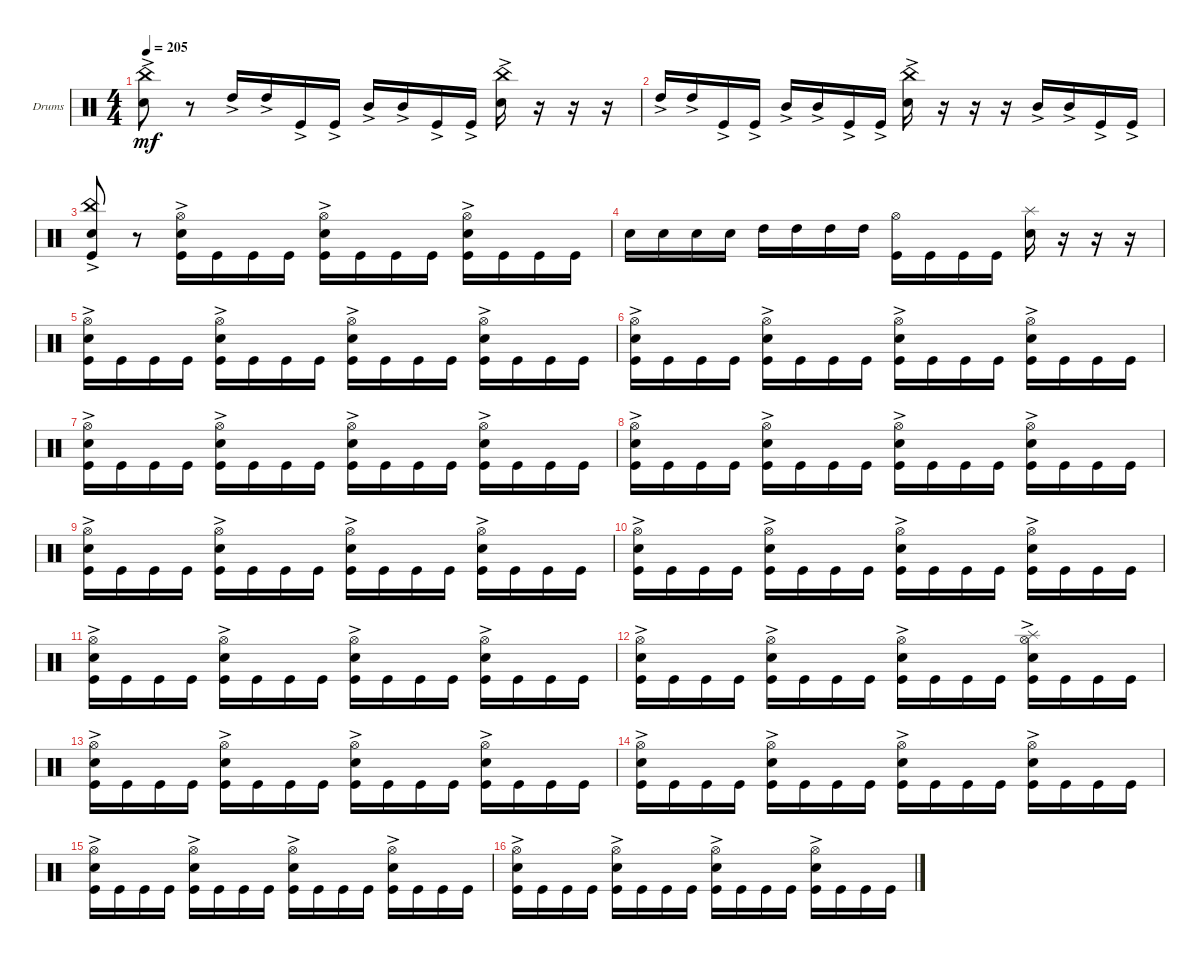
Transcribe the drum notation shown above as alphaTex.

\defaultSystemsLayout 4
\bracketExtendMode groupsimilarinstruments
\firstSystemTrackNameOrientation horizontal
\otherSystemsTrackNameOrientation horizontal
\track ("Drumkit" "Drums") {instrument percussion}
\staff {score}
\articulation defaults
\ts (4 4)
\tempo 205
\clef neutral
\ks c
("Snare (hit) 2"{ac} "China (hit)"{ac}).8{dy mf} r.8 "High Tom (hit)"{ac}.16 "High Tom (hit)"{ac}.16 "Kick (hit)"{ac}.16 "Kick (hit)"{ac}.16 "Mid Tom (hit)"{ac}.16 "Mid Tom (hit)"{ac}.16 "Kick (hit)"{ac}.16 "Kick (hit)"{ac}.16 ("Snare (hit) 2"{ac} "China (hit)"{ac}).16 r.16 r.16 r.16 |
"High Tom (hit)"{ac}.16 "High Tom (hit)"{ac}.16 "Kick (hit)"{ac}.16 "Kick (hit)"{ac}.16 "Mid Tom (hit)"{ac}.16 "Mid Tom (hit)"{ac}.16 "Kick (hit)"{ac}.16 "Kick (hit)"{ac}.16 ("Snare (hit) 2"{ac} "China (hit)"{ac}).16 r.16 r.16 r.16 "Mid Tom (hit)"{ac}.16 "Mid Tom (hit)"{ac}.16 "Kick (hit)"{ac}.16 "Kick (hit)"{ac}.16 |
("Snare (hit) 2"{ac} "Kick (hit)"{ac} "China (hit)"{ac}).8 r.8 ("Snare (hit) 2"{ac} "Kick (hit)" "Hi-Hat (open)").16 "Kick (hit)".16 "Kick (hit)".16 "Kick (hit)".16 ("Snare (hit) 2"{ac} "Kick (hit)" "Hi-Hat (open)").16 "Kick (hit)".16 "Kick (hit)".16 "Kick (hit)".16 ("Snare (hit) 2"{ac} "Kick (hit)" "Hi-Hat (open)"{ac}).16 "Kick (hit)".16 "Kick (hit)".16 "Kick (hit)".16 |
"Snare (hit) 2".16 "Snare (hit) 2".16 "Snare (hit) 2".16 "Snare (hit) 2".16 "High Tom (hit)".16 "High Tom (hit)".16 "High Tom (hit)".16 "High Tom (hit)".16 ("Hi-Hat (open)" "Kick (hit)").16 "Kick (hit)".16 "Kick (hit)".16 "Kick (hit)".16 ("Snare (hit) 2" "Splash (hit)").16 r.16 r.16 r.16 |
("Snare (hit) 2"{ac} "Kick (hit)" "Hi-Hat (open)").16 "Kick (hit)".16 "Kick (hit)".16 "Kick (hit)".16 ("Snare (hit) 2"{ac} "Kick (hit)" "Hi-Hat (open)").16 "Kick (hit)".16 "Kick (hit)".16 "Kick (hit)".16 ("Snare (hit) 2"{ac} "Kick (hit)" "Hi-Hat (open)"{ac}).16 "Kick (hit)".16 "Kick (hit)".16 "Kick (hit)".16 ("Snare (hit) 2"{ac} "Kick (hit)" "Hi-Hat (open)"{ac}).16 "Kick (hit)".16 "Kick (hit)".16 "Kick (hit)".16 |
("Snare (hit) 2"{ac} "Kick (hit)" "Hi-Hat (open)").16 "Kick (hit)".16 "Kick (hit)".16 "Kick (hit)".16 ("Snare (hit) 2"{ac} "Kick (hit)" "Hi-Hat (open)").16 "Kick (hit)".16 "Kick (hit)".16 "Kick (hit)".16 ("Snare (hit) 2"{ac} "Kick (hit)" "Hi-Hat (open)"{ac}).16 "Kick (hit)".16 "Kick (hit)".16 "Kick (hit)".16 ("Snare (hit) 2"{ac} "Kick (hit)" "Hi-Hat (open)"{ac}).16 "Kick (hit)".16 "Kick (hit)".16 "Kick (hit)".16 |
("Snare (hit) 2"{ac} "Kick (hit)" "Hi-Hat (open)").16 "Kick (hit)".16 "Kick (hit)".16 "Kick (hit)".16 ("Snare (hit) 2"{ac} "Kick (hit)" "Hi-Hat (open)").16 "Kick (hit)".16 "Kick (hit)".16 "Kick (hit)".16 ("Snare (hit) 2"{ac} "Kick (hit)" "Hi-Hat (open)"{ac}).16 "Kick (hit)".16 "Kick (hit)".16 "Kick (hit)".16 ("Snare (hit) 2"{ac} "Kick (hit)" "Hi-Hat (open)"{ac}).16 "Kick (hit)".16 "Kick (hit)".16 "Kick (hit)".16 |
("Snare (hit) 2"{ac} "Kick (hit)" "Hi-Hat (open)").16 "Kick (hit)".16 "Kick (hit)".16 "Kick (hit)".16 ("Snare (hit) 2"{ac} "Kick (hit)" "Hi-Hat (open)").16 "Kick (hit)".16 "Kick (hit)".16 "Kick (hit)".16 ("Snare (hit) 2"{ac} "Kick (hit)" "Hi-Hat (open)"{ac}).16 "Kick (hit)".16 "Kick (hit)".16 "Kick (hit)".16 ("Snare (hit) 2"{ac} "Kick (hit)" "Hi-Hat (open)"{ac}).16 "Kick (hit)".16 "Kick (hit)".16 "Kick (hit)".16 |
("Snare (hit) 2"{ac} "Kick (hit)" "Hi-Hat (open)").16 "Kick (hit)".16 "Kick (hit)".16 "Kick (hit)".16 ("Snare (hit) 2"{ac} "Kick (hit)" "Hi-Hat (open)").16 "Kick (hit)".16 "Kick (hit)".16 "Kick (hit)".16 ("Snare (hit) 2"{ac} "Kick (hit)" "Hi-Hat (open)"{ac}).16 "Kick (hit)".16 "Kick (hit)".16 "Kick (hit)".16 ("Snare (hit) 2"{ac} "Kick (hit)" "Hi-Hat (open)"{ac}).16 "Kick (hit)".16 "Kick (hit)".16 "Kick (hit)".16 |
("Snare (hit) 2"{ac} "Kick (hit)" "Hi-Hat (open)").16 "Kick (hit)".16 "Kick (hit)".16 "Kick (hit)".16 ("Snare (hit) 2"{ac} "Kick (hit)" "Hi-Hat (open)").16 "Kick (hit)".16 "Kick (hit)".16 "Kick (hit)".16 ("Snare (hit) 2"{ac} "Kick (hit)" "Hi-Hat (open)"{ac}).16 "Kick (hit)".16 "Kick (hit)".16 "Kick (hit)".16 ("Snare (hit) 2"{ac} "Kick (hit)" "Hi-Hat (open)"{ac}).16 "Kick (hit)".16 "Kick (hit)".16 "Kick (hit)".16 |
("Snare (hit) 2"{ac} "Kick (hit)" "Hi-Hat (open)").16 "Kick (hit)".16 "Kick (hit)".16 "Kick (hit)".16 ("Snare (hit) 2"{ac} "Kick (hit)" "Hi-Hat (open)").16 "Kick (hit)".16 "Kick (hit)".16 "Kick (hit)".16 ("Snare (hit) 2"{ac} "Kick (hit)" "Hi-Hat (open)"{ac}).16 "Kick (hit)".16 "Kick (hit)".16 "Kick (hit)".16 ("Snare (hit) 2"{ac} "Kick (hit)" "Hi-Hat (open)"{ac}).16 "Kick (hit)".16 "Kick (hit)".16 "Kick (hit)".16 |
("Snare (hit) 2"{ac} "Kick (hit)" "Hi-Hat (open)").16 "Kick (hit)".16 "Kick (hit)".16 "Kick (hit)".16 ("Snare (hit) 2"{ac} "Kick (hit)" "Hi-Hat (open)").16 "Kick (hit)".16 "Kick (hit)".16 "Kick (hit)".16 ("Snare (hit) 2"{ac} "Kick (hit)" "Hi-Hat (open)"{ac}).16 "Kick (hit)".16 "Kick (hit)".16 "Kick (hit)".16 ("Snare (hit) 2"{ac} "Kick (hit)" "Hi-Hat (open)"{ac} "Splash (hit)").16 "Kick (hit)".16 "Kick (hit)".16 "Kick (hit)".16 |
("Snare (hit) 2"{ac} "Kick (hit)" "Hi-Hat (open)").16 "Kick (hit)".16 "Kick (hit)".16 "Kick (hit)".16 ("Snare (hit) 2"{ac} "Kick (hit)" "Hi-Hat (open)").16 "Kick (hit)".16 "Kick (hit)".16 "Kick (hit)".16 ("Snare (hit) 2"{ac} "Kick (hit)" "Hi-Hat (open)"{ac}).16 "Kick (hit)".16 "Kick (hit)".16 "Kick (hit)".16 ("Snare (hit) 2"{ac} "Kick (hit)" "Hi-Hat (open)"{ac}).16 "Kick (hit)".16 "Kick (hit)".16 "Kick (hit)".16 |
("Snare (hit) 2"{ac} "Kick (hit)" "Hi-Hat (open)").16 "Kick (hit)".16 "Kick (hit)".16 "Kick (hit)".16 ("Snare (hit) 2"{ac} "Kick (hit)" "Hi-Hat (open)").16 "Kick (hit)".16 "Kick (hit)".16 "Kick (hit)".16 ("Snare (hit) 2"{ac} "Kick (hit)" "Hi-Hat (open)"{ac}).16 "Kick (hit)".16 "Kick (hit)".16 "Kick (hit)".16 ("Snare (hit) 2"{ac} "Kick (hit)" "Hi-Hat (open)"{ac}).16 "Kick (hit)".16 "Kick (hit)".16 "Kick (hit)".16 |
("Snare (hit) 2"{ac} "Kick (hit)" "Hi-Hat (open)").16 "Kick (hit)".16 "Kick (hit)".16 "Kick (hit)".16 ("Snare (hit) 2"{ac} "Kick (hit)" "Hi-Hat (open)").16 "Kick (hit)".16 "Kick (hit)".16 "Kick (hit)".16 ("Snare (hit) 2"{ac} "Kick (hit)" "Hi-Hat (open)"{ac}).16 "Kick (hit)".16 "Kick (hit)".16 "Kick (hit)".16 ("Snare (hit) 2"{ac} "Kick (hit)" "Hi-Hat (open)"{ac}).16 "Kick (hit)".16 "Kick (hit)".16 "Kick (hit)".16 |
("Snare (hit) 2"{ac} "Kick (hit)" "Hi-Hat (open)").16 "Kick (hit)".16 "Kick (hit)".16 "Kick (hit)".16 ("Snare (hit) 2"{ac} "Kick (hit)" "Hi-Hat (open)").16 "Kick (hit)".16 "Kick (hit)".16 "Kick (hit)".16 ("Snare (hit) 2"{ac} "Kick (hit)" "Hi-Hat (open)"{ac}).16 "Kick (hit)".16 "Kick (hit)".16 "Kick (hit)".16 ("Snare (hit) 2"{ac} "Kick (hit)" "Hi-Hat (open)"{ac}).16 "Kick (hit)".16 "Kick (hit)".16 "Kick (hit)".16
